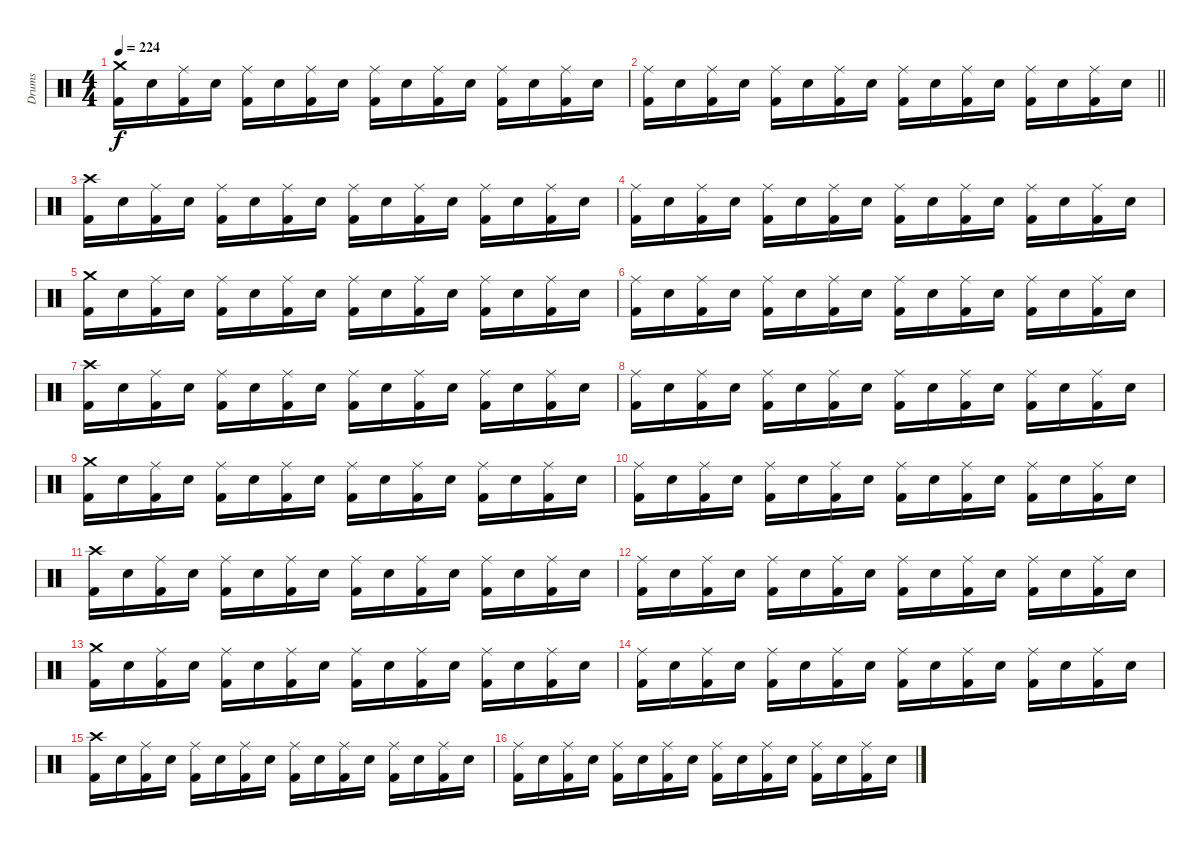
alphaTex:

\track ("Drums" "Drums") {instrument percussion}
\staff {score}
\articulation defaults
\ts (4 4)
\tempo 224
\clef neutral
\ks c
("Crash medium (hit)" "Kick (hit) 2").16{dy f} "Electric Snare (hit)".16 ("Ride (middle)" "Kick (hit) 2").16 "Electric Snare (hit)".16 ("Ride (middle)" "Kick (hit) 2").16 "Electric Snare (hit)".16 ("Ride (middle)" "Kick (hit) 2").16 "Electric Snare (hit)".16 ("Ride (middle)" "Kick (hit) 2").16 "Electric Snare (hit)".16 ("Ride (middle)" "Kick (hit) 2").16 "Electric Snare (hit)".16 ("Ride (middle)" "Kick (hit) 2").16 "Electric Snare (hit)".16 ("Ride (middle)" "Kick (hit) 2").16 "Electric Snare (hit)".16 |
\barLineRight lightlight
("Ride (middle)" "Kick (hit) 2").16 "Electric Snare (hit)".16 ("Ride (middle)" "Kick (hit) 2").16 "Electric Snare (hit)".16 ("Ride (middle)" "Kick (hit) 2").16 "Electric Snare (hit)".16 ("Ride (middle)" "Kick (hit) 2").16 "Electric Snare (hit)".16 ("Ride (middle)" "Kick (hit) 2").16 "Electric Snare (hit)".16 ("Ride (middle)" "Kick (hit) 2").16 "Electric Snare (hit)".16 ("Ride (middle)" "Kick (hit) 2").16 "Electric Snare (hit)".16 ("Ride (middle)" "Kick (hit) 2").16 "Electric Snare (hit)".16 |
("Crash high (hit)" "Kick (hit) 2").16 "Electric Snare (hit)".16 ("Ride (middle)" "Kick (hit) 2").16 "Electric Snare (hit)".16 ("Ride (middle)" "Kick (hit) 2").16 "Electric Snare (hit)".16 ("Ride (middle)" "Kick (hit) 2").16 "Electric Snare (hit)".16 ("Ride (middle)" "Kick (hit) 2").16 "Electric Snare (hit)".16 ("Ride (middle)" "Kick (hit) 2").16 "Electric Snare (hit)".16 ("Ride (middle)" "Kick (hit) 2").16 "Electric Snare (hit)".16 ("Ride (middle)" "Kick (hit) 2").16 "Electric Snare (hit)".16 |
("Ride (middle)" "Kick (hit) 2").16 "Electric Snare (hit)".16 ("Ride (middle)" "Kick (hit) 2").16 "Electric Snare (hit)".16 ("Ride (middle)" "Kick (hit) 2").16 "Electric Snare (hit)".16 ("Ride (middle)" "Kick (hit) 2").16 "Electric Snare (hit)".16 ("Ride (middle)" "Kick (hit) 2").16 "Electric Snare (hit)".16 ("Ride (middle)" "Kick (hit) 2").16 "Electric Snare (hit)".16 ("Ride (middle)" "Kick (hit) 2").16 "Electric Snare (hit)".16 ("Ride (middle)" "Kick (hit) 2").16 "Electric Snare (hit)".16 |
("Crash medium (hit)" "Kick (hit) 2").16 "Electric Snare (hit)".16 ("Ride (middle)" "Kick (hit) 2").16 "Electric Snare (hit)".16 ("Ride (middle)" "Kick (hit) 2").16 "Electric Snare (hit)".16 ("Ride (middle)" "Kick (hit) 2").16 "Electric Snare (hit)".16 ("Ride (middle)" "Kick (hit) 2").16 "Electric Snare (hit)".16 ("Ride (middle)" "Kick (hit) 2").16 "Electric Snare (hit)".16 ("Ride (middle)" "Kick (hit) 2").16 "Electric Snare (hit)".16 ("Ride (middle)" "Kick (hit) 2").16 "Electric Snare (hit)".16 |
("Ride (middle)" "Kick (hit) 2").16 "Electric Snare (hit)".16 ("Ride (middle)" "Kick (hit) 2").16 "Electric Snare (hit)".16 ("Ride (middle)" "Kick (hit) 2").16 "Electric Snare (hit)".16 ("Ride (middle)" "Kick (hit) 2").16 "Electric Snare (hit)".16 ("Ride (middle)" "Kick (hit) 2").16 "Electric Snare (hit)".16 ("Ride (middle)" "Kick (hit) 2").16 "Electric Snare (hit)".16 ("Ride (middle)" "Kick (hit) 2").16 "Electric Snare (hit)".16 ("Ride (middle)" "Kick (hit) 2").16 "Electric Snare (hit)".16 |
("Crash high (hit)" "Kick (hit) 2").16 "Electric Snare (hit)".16 ("Ride (middle)" "Kick (hit) 2").16 "Electric Snare (hit)".16 ("Ride (middle)" "Kick (hit) 2").16 "Electric Snare (hit)".16 ("Ride (middle)" "Kick (hit) 2").16 "Electric Snare (hit)".16 ("Ride (middle)" "Kick (hit) 2").16 "Electric Snare (hit)".16 ("Ride (middle)" "Kick (hit) 2").16 "Electric Snare (hit)".16 ("Ride (middle)" "Kick (hit) 2").16 "Electric Snare (hit)".16 ("Ride (middle)" "Kick (hit) 2").16 "Electric Snare (hit)".16 |
("Ride (middle)" "Kick (hit) 2").16 "Electric Snare (hit)".16 ("Ride (middle)" "Kick (hit) 2").16 "Electric Snare (hit)".16 ("Ride (middle)" "Kick (hit) 2").16 "Electric Snare (hit)".16 ("Ride (middle)" "Kick (hit) 2").16 "Electric Snare (hit)".16 ("Ride (middle)" "Kick (hit) 2").16 "Electric Snare (hit)".16 ("Ride (middle)" "Kick (hit) 2").16 "Electric Snare (hit)".16 ("Ride (middle)" "Kick (hit) 2").16 "Electric Snare (hit)".16 ("Ride (middle)" "Kick (hit) 2").16 "Electric Snare (hit)".16 |
("Crash medium (hit)" "Kick (hit) 2").16 "Electric Snare (hit)".16 ("Ride (middle)" "Kick (hit) 2").16 "Electric Snare (hit)".16 ("Ride (middle)" "Kick (hit) 2").16 "Electric Snare (hit)".16 ("Ride (middle)" "Kick (hit) 2").16 "Electric Snare (hit)".16 ("Ride (middle)" "Kick (hit) 2").16 "Electric Snare (hit)".16 ("Ride (middle)" "Kick (hit) 2").16 "Electric Snare (hit)".16 ("Ride (middle)" "Kick (hit) 2").16 "Electric Snare (hit)".16 ("Ride (middle)" "Kick (hit) 2").16 "Electric Snare (hit)".16 |
("Ride (middle)" "Kick (hit) 2").16 "Electric Snare (hit)".16 ("Ride (middle)" "Kick (hit) 2").16 "Electric Snare (hit)".16 ("Ride (middle)" "Kick (hit) 2").16 "Electric Snare (hit)".16 ("Ride (middle)" "Kick (hit) 2").16 "Electric Snare (hit)".16 ("Ride (middle)" "Kick (hit) 2").16 "Electric Snare (hit)".16 ("Ride (middle)" "Kick (hit) 2").16 "Electric Snare (hit)".16 ("Ride (middle)" "Kick (hit) 2").16 "Electric Snare (hit)".16 ("Ride (middle)" "Kick (hit) 2").16 "Electric Snare (hit)".16 |
("Crash high (hit)" "Kick (hit) 2").16 "Electric Snare (hit)".16 ("Ride (middle)" "Kick (hit) 2").16 "Electric Snare (hit)".16 ("Ride (middle)" "Kick (hit) 2").16 "Electric Snare (hit)".16 ("Ride (middle)" "Kick (hit) 2").16 "Electric Snare (hit)".16 ("Ride (middle)" "Kick (hit) 2").16 "Electric Snare (hit)".16 ("Ride (middle)" "Kick (hit) 2").16 "Electric Snare (hit)".16 ("Ride (middle)" "Kick (hit) 2").16 "Electric Snare (hit)".16 ("Ride (middle)" "Kick (hit) 2").16 "Electric Snare (hit)".16 |
("Ride (middle)" "Kick (hit) 2").16 "Electric Snare (hit)".16 ("Ride (middle)" "Kick (hit) 2").16 "Electric Snare (hit)".16 ("Ride (middle)" "Kick (hit) 2").16 "Electric Snare (hit)".16 ("Ride (middle)" "Kick (hit) 2").16 "Electric Snare (hit)".16 ("Ride (middle)" "Kick (hit) 2").16 "Electric Snare (hit)".16 ("Ride (middle)" "Kick (hit) 2").16 "Electric Snare (hit)".16 ("Ride (middle)" "Kick (hit) 2").16 "Electric Snare (hit)".16 ("Ride (middle)" "Kick (hit) 2").16 "Electric Snare (hit)".16 |
("Crash medium (hit)" "Kick (hit) 2").16 "Electric Snare (hit)".16 ("Ride (middle)" "Kick (hit) 2").16 "Electric Snare (hit)".16 ("Ride (middle)" "Kick (hit) 2").16 "Electric Snare (hit)".16 ("Ride (middle)" "Kick (hit) 2").16 "Electric Snare (hit)".16 ("Ride (middle)" "Kick (hit) 2").16 "Electric Snare (hit)".16 ("Ride (middle)" "Kick (hit) 2").16 "Electric Snare (hit)".16 ("Ride (middle)" "Kick (hit) 2").16 "Electric Snare (hit)".16 ("Ride (middle)" "Kick (hit) 2").16 "Electric Snare (hit)".16 |
("Ride (middle)" "Kick (hit) 2").16 "Electric Snare (hit)".16 ("Ride (middle)" "Kick (hit) 2").16 "Electric Snare (hit)".16 ("Ride (middle)" "Kick (hit) 2").16 "Electric Snare (hit)".16 ("Ride (middle)" "Kick (hit) 2").16 "Electric Snare (hit)".16 ("Ride (middle)" "Kick (hit) 2").16 "Electric Snare (hit)".16 ("Ride (middle)" "Kick (hit) 2").16 "Electric Snare (hit)".16 ("Ride (middle)" "Kick (hit) 2").16 "Electric Snare (hit)".16 ("Ride (middle)" "Kick (hit) 2").16 "Electric Snare (hit)".16 |
("Crash high (hit)" "Kick (hit) 2").16 "Electric Snare (hit)".16 ("Ride (middle)" "Kick (hit) 2").16 "Electric Snare (hit)".16 ("Ride (middle)" "Kick (hit) 2").16 "Electric Snare (hit)".16 ("Ride (middle)" "Kick (hit) 2").16 "Electric Snare (hit)".16 ("Ride (middle)" "Kick (hit) 2").16 "Electric Snare (hit)".16 ("Ride (middle)" "Kick (hit) 2").16 "Electric Snare (hit)".16 ("Ride (middle)" "Kick (hit) 2").16 "Electric Snare (hit)".16 ("Ride (middle)" "Kick (hit) 2").16 "Electric Snare (hit)".16 |
("Ride (middle)" "Kick (hit) 2").16 "Electric Snare (hit)".16 ("Ride (middle)" "Kick (hit) 2").16 "Electric Snare (hit)".16 ("Ride (middle)" "Kick (hit) 2").16 "Electric Snare (hit)".16 ("Ride (middle)" "Kick (hit) 2").16 "Electric Snare (hit)".16 ("Ride (middle)" "Kick (hit) 2").16 "Electric Snare (hit)".16 ("Ride (middle)" "Kick (hit) 2").16 "Electric Snare (hit)".16 ("Ride (middle)" "Kick (hit) 2").16 "Electric Snare (hit)".16 ("Ride (middle)" "Kick (hit) 2").16 "Electric Snare (hit)".16
